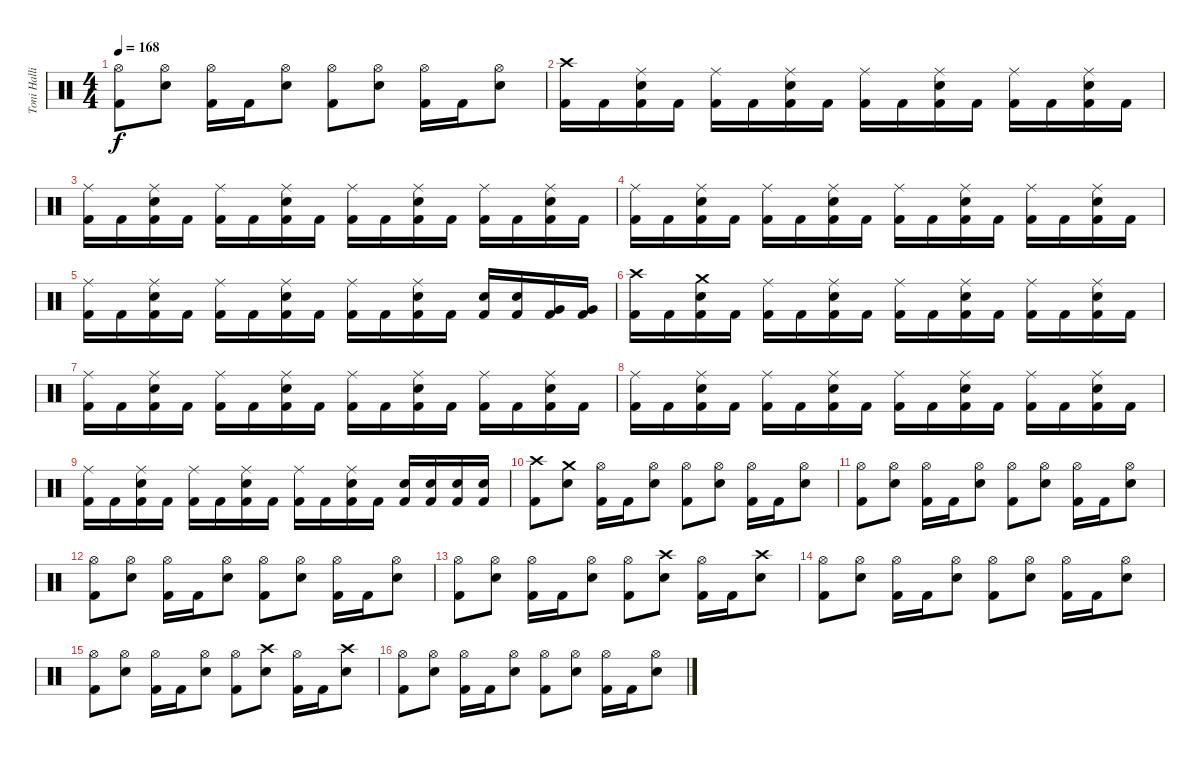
\track ("Toni Hallio" "Toni Halli") {instrument percussion}
\staff {score}
\articulation defaults
\ts (4 4)
\tempo 168
\clef neutral
\ks c
("Hi-Hat (open)" "Kick (hit) 2").8{dy f} ("Hi-Hat (open)" "Snare (hit) 2").8 ("Hi-Hat (open)" "Kick (hit) 2").16 "Kick (hit) 2".16 ("Hi-Hat (open)" "Snare (hit) 2").8 ("Hi-Hat (open)" "Kick (hit) 2").8 ("Hi-Hat (open)" "Snare (hit) 2").8 ("Hi-Hat (open)" "Kick (hit) 2").16 "Kick (hit) 2".16 ("Hi-Hat (open)" "Snare (hit) 2").8 |
("Crash high (hit)" "Kick (hit) 2").16 "Kick (hit) 2".16 ("Ride (middle)" "Snare (hit) 2" "Kick (hit) 2").16 "Kick (hit) 2".16 ("Ride (middle)" "Kick (hit) 2").16 "Kick (hit) 2".16 ("Ride (middle)" "Snare (hit) 2" "Kick (hit) 2").16 "Kick (hit) 2".16 ("Ride (middle)" "Kick (hit) 2").16 "Kick (hit) 2".16 ("Ride (middle)" "Snare (hit) 2" "Kick (hit) 2").16 "Kick (hit) 2".16 ("Ride (middle)" "Kick (hit) 2").16 "Kick (hit) 2".16 ("Ride (middle)" "Snare (hit) 2" "Kick (hit) 2").16 "Kick (hit) 2".16 |
("Ride (middle)" "Kick (hit) 2").16 "Kick (hit) 2".16 ("Ride (middle)" "Snare (hit) 2" "Kick (hit) 2").16 "Kick (hit) 2".16 ("Ride (middle)" "Kick (hit) 2").16 "Kick (hit) 2".16 ("Ride (middle)" "Snare (hit) 2" "Kick (hit) 2").16 "Kick (hit) 2".16 ("Ride (middle)" "Kick (hit) 2").16 "Kick (hit) 2".16 ("Ride (middle)" "Snare (hit) 2" "Kick (hit) 2").16 "Kick (hit) 2".16 ("Ride (middle)" "Kick (hit) 2").16 "Kick (hit) 2".16 ("Ride (middle)" "Snare (hit) 2" "Kick (hit) 2").16 "Kick (hit) 2".16 |
("Ride (middle)" "Kick (hit) 2").16 "Kick (hit) 2".16 ("Ride (middle)" "Snare (hit) 2" "Kick (hit) 2").16 "Kick (hit) 2".16 ("Ride (middle)" "Kick (hit) 2").16 "Kick (hit) 2".16 ("Ride (middle)" "Snare (hit) 2" "Kick (hit) 2").16 "Kick (hit) 2".16 ("Ride (middle)" "Kick (hit) 2").16 "Kick (hit) 2".16 ("Ride (middle)" "Snare (hit) 2" "Kick (hit) 2").16 "Kick (hit) 2".16 ("Ride (middle)" "Kick (hit) 2").16 "Kick (hit) 2".16 ("Ride (middle)" "Snare (hit) 2" "Kick (hit) 2").16 "Kick (hit) 2".16 |
("Ride (middle)" "Kick (hit) 2").16 "Kick (hit) 2".16 ("Ride (middle)" "Snare (hit) 2" "Kick (hit) 2").16 "Kick (hit) 2".16 ("Ride (middle)" "Kick (hit) 2").16 "Kick (hit) 2".16 ("Ride (middle)" "Snare (hit) 2" "Kick (hit) 2").16 "Kick (hit) 2".16 ("Ride (middle)" "Kick (hit) 2").16 "Kick (hit) 2".16 ("Ride (middle)" "Snare (hit) 2" "Kick (hit) 2").16 "Kick (hit) 2".16 ("Snare (hit) 2" "Kick (hit) 2").16 ("Snare (hit) 2" "Kick (hit) 2").16 ("Very Low Tom (hit)" "Kick (hit) 2").16 ("Very Low Tom (hit)" "Kick (hit) 2").16 |
("Crash high (hit)" "Kick (hit) 2").16 "Kick (hit) 2".16 ("Crash medium (hit)" "Snare (hit) 2" "Kick (hit) 2").16 "Kick (hit) 2".16 ("Ride (middle)" "Kick (hit) 2").16 "Kick (hit) 2".16 ("Ride (middle)" "Snare (hit) 2" "Kick (hit) 2").16 "Kick (hit) 2".16 ("Ride (middle)" "Kick (hit) 2").16 "Kick (hit) 2".16 ("Ride (middle)" "Snare (hit) 2" "Kick (hit) 2").16 "Kick (hit) 2".16 ("Ride (middle)" "Kick (hit) 2").16 "Kick (hit) 2".16 ("Ride (middle)" "Snare (hit) 2" "Kick (hit) 2").16 "Kick (hit) 2".16 |
("Ride (middle)" "Kick (hit) 2").16 "Kick (hit) 2".16 ("Ride (middle)" "Snare (hit) 2" "Kick (hit) 2").16 "Kick (hit) 2".16 ("Ride (middle)" "Kick (hit) 2").16 "Kick (hit) 2".16 ("Ride (middle)" "Snare (hit) 2" "Kick (hit) 2").16 "Kick (hit) 2".16 ("Ride (middle)" "Kick (hit) 2").16 "Kick (hit) 2".16 ("Ride (middle)" "Snare (hit) 2" "Kick (hit) 2").16 "Kick (hit) 2".16 ("Ride (middle)" "Kick (hit) 2").16 "Kick (hit) 2".16 ("Ride (middle)" "Snare (hit) 2" "Kick (hit) 2").16 "Kick (hit) 2".16 |
("Ride (middle)" "Kick (hit) 2").16 "Kick (hit) 2".16 ("Ride (middle)" "Snare (hit) 2" "Kick (hit) 2").16 "Kick (hit) 2".16 ("Ride (middle)" "Kick (hit) 2").16 "Kick (hit) 2".16 ("Ride (middle)" "Snare (hit) 2" "Kick (hit) 2").16 "Kick (hit) 2".16 ("Ride (middle)" "Kick (hit) 2").16 "Kick (hit) 2".16 ("Ride (middle)" "Snare (hit) 2" "Kick (hit) 2").16 "Kick (hit) 2".16 ("Ride (middle)" "Kick (hit) 2").16 "Kick (hit) 2".16 ("Ride (middle)" "Snare (hit) 2" "Kick (hit) 2").16 "Kick (hit) 2".16 |
("Ride (middle)" "Kick (hit) 2").16 "Kick (hit) 2".16 ("Ride (middle)" "Snare (hit) 2" "Kick (hit) 2").16 "Kick (hit) 2".16 ("Ride (middle)" "Kick (hit) 2").16 "Kick (hit) 2".16 ("Ride (middle)" "Snare (hit) 2" "Kick (hit) 2").16 "Kick (hit) 2".16 ("Ride (middle)" "Kick (hit) 2").16 "Kick (hit) 2".16 ("Ride (middle)" "Snare (hit) 2" "Kick (hit) 2").16 "Kick (hit) 2".16 ("Snare (hit) 2" "Kick (hit) 2").16 ("Snare (hit) 2" "Kick (hit) 2").16 ("Snare (hit) 2" "Kick (hit) 2").16 ("Snare (hit) 2" "Kick (hit) 2").16 |
("Crash high (hit)" "Kick (hit) 2").8 ("Crash medium (hit)" "Snare (hit) 2").8 ("Hi-Hat (open)" "Kick (hit) 2").16 "Kick (hit) 2".16 ("Hi-Hat (open)" "Snare (hit) 2").8 ("Hi-Hat (open)" "Kick (hit) 2").8 ("Hi-Hat (open)" "Snare (hit) 2").8 ("Hi-Hat (open)" "Kick (hit) 2").16 "Kick (hit) 2".16 ("Hi-Hat (open)" "Snare (hit) 2").8 |
("Hi-Hat (open)" "Kick (hit) 2").8 ("Hi-Hat (open)" "Snare (hit) 2").8 ("Hi-Hat (open)" "Kick (hit) 2").16 "Kick (hit) 2".16 ("Hi-Hat (open)" "Snare (hit) 2").8 ("Hi-Hat (open)" "Kick (hit) 2").8 ("Hi-Hat (open)" "Snare (hit) 2").8 ("Hi-Hat (open)" "Kick (hit) 2").16 "Kick (hit) 2".16 ("Hi-Hat (open)" "Snare (hit) 2").8 |
("Hi-Hat (open)" "Kick (hit) 2").8 ("Hi-Hat (open)" "Snare (hit) 2").8 ("Hi-Hat (open)" "Kick (hit) 2").16 "Kick (hit) 2".16 ("Hi-Hat (open)" "Snare (hit) 2").8 ("Hi-Hat (open)" "Kick (hit) 2").8 ("Hi-Hat (open)" "Snare (hit) 2").8 ("Hi-Hat (open)" "Kick (hit) 2").16 "Kick (hit) 2".16 ("Hi-Hat (open)" "Snare (hit) 2").8 |
("Hi-Hat (open)" "Kick (hit) 2").8 ("Hi-Hat (open)" "Snare (hit) 2").8 ("Hi-Hat (open)" "Kick (hit) 2").16 "Kick (hit) 2".16 ("Hi-Hat (open)" "Snare (hit) 2").8 ("Hi-Hat (open)" "Kick (hit) 2").8 ("Crash high (hit)" "Snare (hit) 2").8 ("Hi-Hat (open)" "Kick (hit) 2").16 "Kick (hit) 2".16 ("Crash high (hit)" "Snare (hit) 2").8 |
("Hi-Hat (open)" "Kick (hit) 2").8 ("Hi-Hat (open)" "Snare (hit) 2").8 ("Hi-Hat (open)" "Kick (hit) 2").16 "Kick (hit) 2".16 ("Hi-Hat (open)" "Snare (hit) 2").8 ("Hi-Hat (open)" "Kick (hit) 2").8 ("Hi-Hat (open)" "Snare (hit) 2").8 ("Hi-Hat (open)" "Kick (hit) 2").16 "Kick (hit) 2".16 ("Hi-Hat (open)" "Snare (hit) 2").8 |
("Hi-Hat (open)" "Kick (hit) 2").8 ("Hi-Hat (open)" "Snare (hit) 2").8 ("Hi-Hat (open)" "Kick (hit) 2").16 "Kick (hit) 2".16 ("Hi-Hat (open)" "Snare (hit) 2").8 ("Hi-Hat (open)" "Kick (hit) 2").8 ("Crash high (hit)" "Snare (hit) 2").8 ("Hi-Hat (open)" "Kick (hit) 2").16 "Kick (hit) 2".16 ("Crash high (hit)" "Snare (hit) 2").8 |
("Hi-Hat (open)" "Kick (hit) 2").8 ("Hi-Hat (open)" "Snare (hit) 2").8 ("Hi-Hat (open)" "Kick (hit) 2").16 "Kick (hit) 2".16 ("Hi-Hat (open)" "Snare (hit) 2").8 ("Hi-Hat (open)" "Kick (hit) 2").8 ("Hi-Hat (open)" "Snare (hit) 2").8 ("Hi-Hat (open)" "Kick (hit) 2").16 "Kick (hit) 2".16 ("Hi-Hat (open)" "Snare (hit) 2").8
